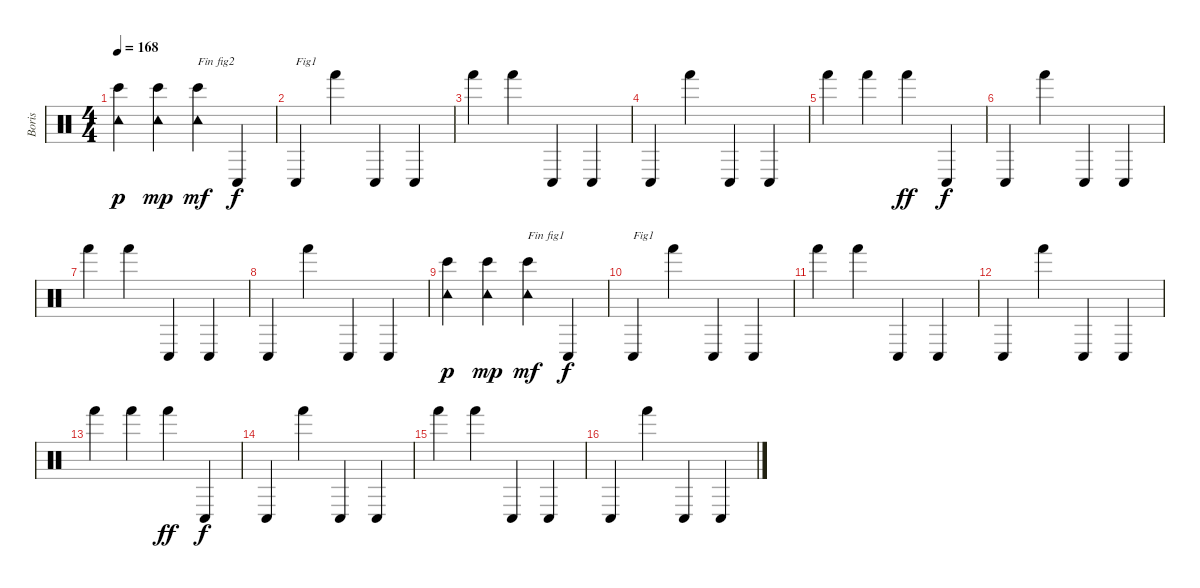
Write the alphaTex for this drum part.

\track ("Boris" "Boris") {instrument percussion}
\staff {score}
\articulation defaults
\ts (4 4)
\tempo 168
\clef neutral
\ks c
("Tambourine (hit)" "Bongo High (hit)").4{dy p} ("Tambourine (hit)" "Bongo High (hit)").4{dy mp} ("Tambourine (hit)" "Bongo High (hit)").4{txt "Fin fig2" dy mf} "Conga low (hit)".4{dy f} |
"Conga low (hit)".4{txt "Fig1"} "Hand (hit)".4 "Conga low (hit)".4 "Conga low (hit)".4 |
"Hand (hit)".4 "Hand (hit)".4 "Conga low (hit)".4 "Conga low (hit)".4 |
"Conga low (hit)".4 "Hand (hit)".4 "Conga low (hit)".4 "Conga low (hit)".4 |
"Hand (hit)".4 "Hand (hit)".4 "Hand (hit)".4{dy ff} "Conga low (hit)".4{dy f} |
"Conga low (hit)".4 "Hand (hit)".4 "Conga low (hit)".4 "Conga low (hit)".4 |
"Hand (hit)".4 "Hand (hit)".4 "Conga low (hit)".4 "Conga low (hit)".4 |
"Conga low (hit)".4 "Hand (hit)".4 "Conga low (hit)".4 "Conga low (hit)".4 |
("Tambourine (hit)" "Bongo High (hit)").4{dy p} ("Tambourine (hit)" "Bongo High (hit)").4{dy mp} ("Tambourine (hit)" "Bongo High (hit)").4{txt "Fin fig1" dy mf} "Conga low (hit)".4{dy f} |
"Conga low (hit)".4{txt "Fig1"} "Hand (hit)".4 "Conga low (hit)".4 "Conga low (hit)".4 |
"Hand (hit)".4 "Hand (hit)".4 "Conga low (hit)".4 "Conga low (hit)".4 |
"Conga low (hit)".4 "Hand (hit)".4 "Conga low (hit)".4 "Conga low (hit)".4 |
"Hand (hit)".4 "Hand (hit)".4 "Hand (hit)".4{dy ff} "Conga low (hit)".4{dy f} |
"Conga low (hit)".4 "Hand (hit)".4 "Conga low (hit)".4 "Conga low (hit)".4 |
"Hand (hit)".4 "Hand (hit)".4 "Conga low (hit)".4 "Conga low (hit)".4 |
"Conga low (hit)".4 "Hand (hit)".4 "Conga low (hit)".4 "Conga low (hit)".4
